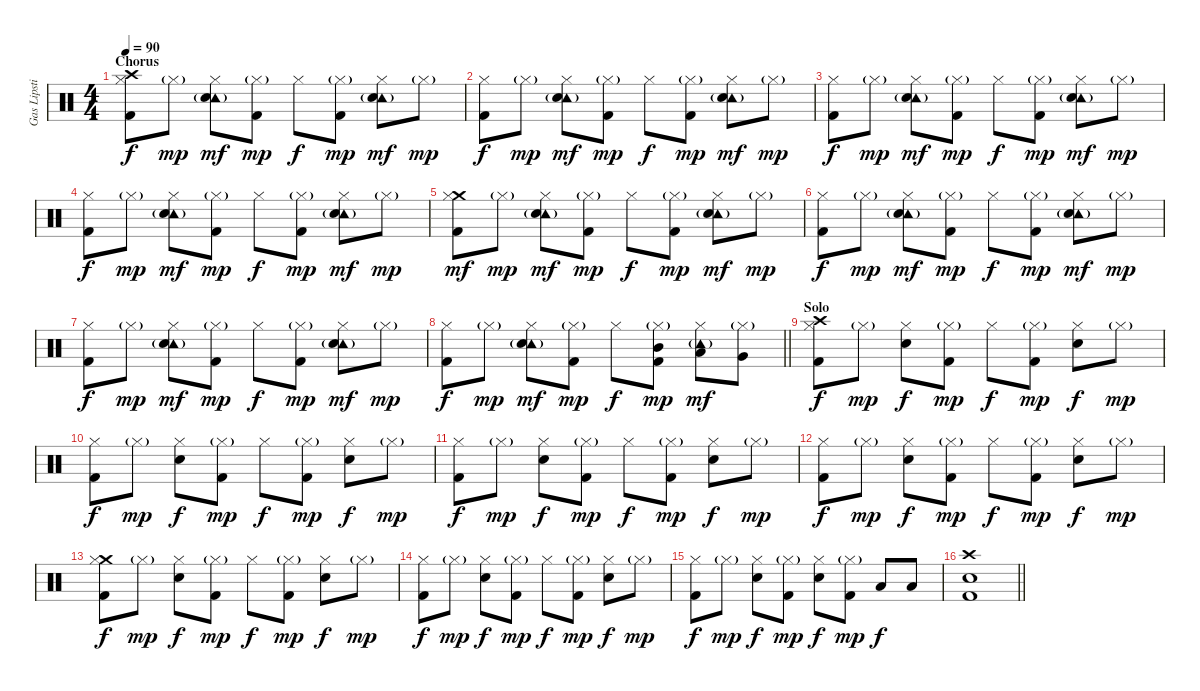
\track ("Gas Lipstick (Drums)" "Gas Lipsti") {instrument percussion}
\staff {score}
\articulation defaults
\ts (4 4)
\section ("" "Chorus")
\tempo 90
\clef neutral
\ks c
("Crash high (hit)" "Hi-Hat (closed)" "Kick (hit) 2").8{dy f} "Hi-Hat (closed)"{g}.8{dy mp} ("Tambourine (hit)"{g} "Hi-Hat (closed)" "Snare (hit) 2").8{dy mf} ("Hi-Hat (closed)"{g} "Kick (hit) 2").8{dy mp} "Hi-Hat (closed)".8{dy f} ("Hi-Hat (closed)"{g} "Kick (hit) 2").8{dy mp} ("Tambourine (hit)"{g} "Hi-Hat (closed)" "Snare (hit) 2").8{dy mf} "Hi-Hat (closed)"{g}.8{dy mp} |
("Hi-Hat (closed)" "Kick (hit) 2").8{dy f} "Hi-Hat (closed)"{g}.8{dy mp} ("Tambourine (hit)"{g} "Hi-Hat (closed)" "Snare (hit) 2").8{dy mf} ("Hi-Hat (closed)"{g} "Kick (hit) 2").8{dy mp} "Hi-Hat (closed)".8{dy f} ("Hi-Hat (closed)"{g} "Kick (hit) 2").8{dy mp} ("Tambourine (hit)"{g} "Hi-Hat (closed)" "Snare (hit) 2").8{dy mf} "Hi-Hat (closed)"{g}.8{dy mp} |
("Hi-Hat (closed)" "Kick (hit) 2").8{dy f} "Hi-Hat (closed)"{g}.8{dy mp} ("Tambourine (hit)"{g} "Hi-Hat (closed)" "Snare (hit) 2").8{dy mf} ("Hi-Hat (closed)"{g} "Kick (hit) 2").8{dy mp} "Hi-Hat (closed)".8{dy f} ("Hi-Hat (closed)"{g} "Kick (hit) 2").8{dy mp} ("Tambourine (hit)"{g} "Hi-Hat (closed)" "Snare (hit) 2").8{dy mf} "Hi-Hat (closed)"{g}.8{dy mp} |
("Hi-Hat (closed)" "Kick (hit) 2").8{dy f} "Hi-Hat (closed)"{g}.8{dy mp} ("Tambourine (hit)"{g} "Hi-Hat (closed)" "Snare (hit) 2").8{dy mf} ("Hi-Hat (closed)"{g} "Kick (hit) 2").8{dy mp} "Hi-Hat (closed)".8{dy f} ("Hi-Hat (closed)"{g} "Kick (hit) 2").8{dy mp} ("Tambourine (hit)"{g} "Hi-Hat (closed)" "Snare (hit) 2").8{dy mf} "Hi-Hat (closed)"{g}.8{dy mp} |
("Crash medium (hit)" "Hi-Hat (closed)" "Kick (hit) 2").8{dy mf} "Hi-Hat (closed)"{g}.8{dy mp} ("Tambourine (hit)"{g} "Hi-Hat (closed)" "Snare (hit) 2").8{dy mf} ("Hi-Hat (closed)"{g} "Kick (hit) 2").8{dy mp} "Hi-Hat (closed)".8{dy f} ("Hi-Hat (closed)"{g} "Kick (hit) 2").8{dy mp} ("Tambourine (hit)"{g} "Hi-Hat (closed)" "Snare (hit) 2").8{dy mf} "Hi-Hat (closed)"{g}.8{dy mp} |
("Hi-Hat (closed)" "Kick (hit) 2").8{dy f} "Hi-Hat (closed)"{g}.8{dy mp} ("Tambourine (hit)"{g} "Hi-Hat (closed)" "Snare (hit) 2").8{dy mf} ("Hi-Hat (closed)"{g} "Kick (hit) 2").8{dy mp} "Hi-Hat (closed)".8{dy f} ("Hi-Hat (closed)"{g} "Kick (hit) 2").8{dy mp} ("Tambourine (hit)"{g} "Hi-Hat (closed)" "Snare (hit) 2").8{dy mf} "Hi-Hat (closed)"{g}.8{dy mp} |
("Hi-Hat (closed)" "Kick (hit) 2").8{dy f} "Hi-Hat (closed)"{g}.8{dy mp} ("Tambourine (hit)"{g} "Hi-Hat (closed)" "Snare (hit) 2").8{dy mf} ("Hi-Hat (closed)"{g} "Kick (hit) 2").8{dy mp} "Hi-Hat (closed)".8{dy f} ("Hi-Hat (closed)"{g} "Kick (hit) 2").8{dy mp} ("Tambourine (hit)"{g} "Hi-Hat (closed)" "Snare (hit) 2").8{dy mf} "Hi-Hat (closed)"{g}.8{dy mp} |
\barLineRight lightlight
("Hi-Hat (closed)" "Kick (hit) 2").8{dy f} "Hi-Hat (closed)"{g}.8{dy mp} ("Tambourine (hit)"{g} "Hi-Hat (closed)" "Snare (hit) 2").8{dy mf} ("Hi-Hat (closed)"{g} "Kick (hit) 2").8{dy mp} "Hi-Hat (closed)".8{dy f} ("Hi-Hat (closed)"{g} "Mid Tom (hit)" "Kick (hit) 2").8{dy mp} ("Tambourine (hit)"{g} "Hi-Hat (closed)" "Low Tom (hit)").8{dy mf} ("Hi-Hat (closed)"{g} "Very Low Tom (hit)").8 |
\section ("" "Solo")
("Crash high (hit)" "Hi-Hat (closed)" "Kick (hit) 2").8{dy f} "Hi-Hat (closed)"{g}.8{dy mp} ("Hi-Hat (closed)" "Snare (hit) 2").8{dy f} ("Hi-Hat (closed)"{g} "Kick (hit) 2").8{dy mp} "Hi-Hat (closed)".8{dy f} ("Hi-Hat (closed)"{g} "Kick (hit) 2").8{dy mp} ("Hi-Hat (closed)" "Snare (hit) 2").8{dy f} "Hi-Hat (closed)"{g}.8{dy mp} |
("Hi-Hat (closed)" "Kick (hit) 2").8{dy f} "Hi-Hat (closed)"{g}.8{dy mp} ("Hi-Hat (closed)" "Snare (hit) 2").8{dy f} ("Hi-Hat (closed)"{g} "Kick (hit) 2").8{dy mp} "Hi-Hat (closed)".8{dy f} ("Hi-Hat (closed)"{g} "Kick (hit) 2").8{dy mp} ("Hi-Hat (closed)" "Snare (hit) 2").8{dy f} "Hi-Hat (closed)"{g}.8{dy mp} |
("Hi-Hat (closed)" "Kick (hit) 2").8{dy f} "Hi-Hat (closed)"{g}.8{dy mp} ("Hi-Hat (closed)" "Snare (hit) 2").8{dy f} ("Hi-Hat (closed)"{g} "Kick (hit) 2").8{dy mp} "Hi-Hat (closed)".8{dy f} ("Hi-Hat (closed)"{g} "Kick (hit) 2").8{dy mp} ("Hi-Hat (closed)" "Snare (hit) 2").8{dy f} "Hi-Hat (closed)"{g}.8{dy mp} |
("Hi-Hat (closed)" "Kick (hit) 2").8{dy f} "Hi-Hat (closed)"{g}.8{dy mp} ("Hi-Hat (closed)" "Snare (hit) 2").8{dy f} ("Hi-Hat (closed)"{g} "Kick (hit) 2").8{dy mp} "Hi-Hat (closed)".8{dy f} ("Hi-Hat (closed)"{g} "Kick (hit) 2").8{dy mp} ("Hi-Hat (closed)" "Snare (hit) 2").8{dy f} "Hi-Hat (closed)"{g}.8{dy mp} |
("Crash medium (hit)" "Hi-Hat (closed)" "Kick (hit) 2").8{dy f} "Hi-Hat (closed)"{g}.8{dy mp} ("Hi-Hat (closed)" "Snare (hit) 2").8{dy f} ("Hi-Hat (closed)"{g} "Kick (hit) 2").8{dy mp} "Hi-Hat (closed)".8{dy f} ("Hi-Hat (closed)"{g} "Kick (hit) 2").8{dy mp} ("Hi-Hat (closed)" "Snare (hit) 2").8{dy f} "Hi-Hat (closed)"{g}.8{dy mp} |
("Hi-Hat (closed)" "Kick (hit) 2").8{dy f} "Hi-Hat (closed)"{g}.8{dy mp} ("Hi-Hat (closed)" "Snare (hit) 2").8{dy f} ("Hi-Hat (closed)"{g} "Kick (hit) 2").8{dy mp} "Hi-Hat (closed)".8{dy f} ("Hi-Hat (closed)"{g} "Kick (hit) 2").8{dy mp} ("Hi-Hat (closed)" "Snare (hit) 2").8{dy f} "Hi-Hat (closed)"{g}.8{dy mp} |
("Hi-Hat (closed)" "Kick (hit) 2").8{dy f} "Hi-Hat (closed)"{g}.8{dy mp} ("Hi-Hat (closed)" "Snare (hit) 2").8{dy f} ("Hi-Hat (closed)"{g} "Kick (hit) 2").8{dy mp} ("Hi-Hat (closed)" "Snare (hit) 2").8{dy f} ("Hi-Hat (closed)"{g} "Kick (hit) 2").8{dy mp} "Low Tom (hit)".8{dy f} "Low Floor Tom (hit)".8 |
\barLineRight lightlight
("Crash high (hit)" "Snare (hit) 2" "Kick (hit) 2").1
